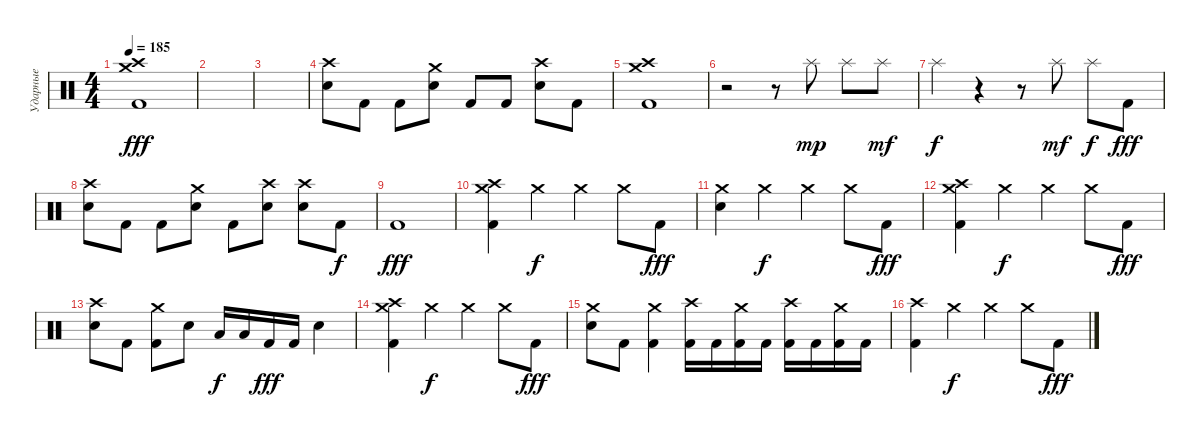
\track ("Ударные" "Ударные") {instrument percussion}
\staff {score}
\articulation defaults
\ts (4 4)
\tempo 185
\clef neutral
\ks c
("Crash medium (hit)" "Crash high (hit)" "Kick (hit) 2").1{dy fff} |
|
|
("Crash high (hit)" "Electric Snare (hit)").8 "Kick (hit) 2".8 "Kick (hit) 2".8 ("Crash medium (hit)" "Electric Snare (hit)").8 "Kick (hit) 2".8 "Kick (hit) 2".8 ("Crash high (hit)" "Electric Snare (hit)").8 "Kick (hit) 2".8 |
("Crash medium (hit)" "Crash high (hit)" "Kick (hit) 2").1 |
r.2 r.8 "Splash (hit)".8{dy mp} "Splash (hit)".8 "Splash (hit)".8{dy mf} |
"Splash (hit)".4{dy f} r.4 r.8 "Splash (hit)".8{dy mf} "Splash (hit)".8{dy f} "Kick (hit) 2".8{dy fff} |
("Crash high (hit)" "Electric Snare (hit)").8 "Kick (hit) 2".8 "Kick (hit) 2".8 ("Crash medium (hit)" "Electric Snare (hit)").8 "Kick (hit) 2".8 ("Crash high (hit)" "Electric Snare (hit)").8 ("Crash high (hit)" "Electric Snare (hit)").8 "Kick (hit) 2".8{dy f} |
"Kick (hit) 2".1{dy fff} |
("Crash high (hit)" "Crash medium (hit)" "Kick (hit) 2").4 "Crash medium (hit)".4{dy f} "Crash medium (hit)".4 "Crash medium (hit)".8 "Kick (hit) 2".8{dy fff} |
("Crash medium (hit)" "Electric Snare (hit)").4 "Crash medium (hit)".4{dy f} "Crash medium (hit)".4 "Crash medium (hit)".8 "Kick (hit) 2".8{dy fff} |
("Crash high (hit)" "Crash medium (hit)" "Kick (hit) 2").4 "Crash medium (hit)".4{dy f} "Crash medium (hit)".4 "Crash medium (hit)".8 "Kick (hit) 2".8{dy fff} |
("Crash high (hit)" "Electric Snare (hit)").8 "Kick (hit) 2".8 ("Crash medium (hit)" "Kick (hit) 2").8 "Electric Snare (hit)".8 "Low Floor Tom (hit)".16{dy f} "Low Floor Tom (hit)".16 "Kick (hit) 2".16{dy fff} "Kick (hit) 2".16 "Electric Snare (hit)".4 |
("Crash high (hit)" "Crash medium (hit)" "Kick (hit) 2").4 "Crash medium (hit)".4{dy f} "Crash medium (hit)".4 "Crash medium (hit)".8 "Kick (hit) 2".8{dy fff} |
("Crash medium (hit)" "Electric Snare (hit)").8 "Kick (hit) 2".8 ("Crash medium (hit)" "Kick (hit) 2").4 ("Crash high (hit)" "Kick (hit) 2").16 "Kick (hit) 2".16 ("Crash medium (hit)" "Kick (hit) 2").16 "Kick (hit) 2".16 ("Crash high (hit)" "Kick (hit) 2").16 "Kick (hit) 2".16 ("Crash medium (hit)" "Kick (hit) 2").16 "Kick (hit) 2".16 |
("Crash high (hit)" "Kick (hit) 2").4 "Crash medium (hit)".4{dy f} "Crash medium (hit)".4 "Crash medium (hit)".8 "Kick (hit) 2".8{dy fff}
